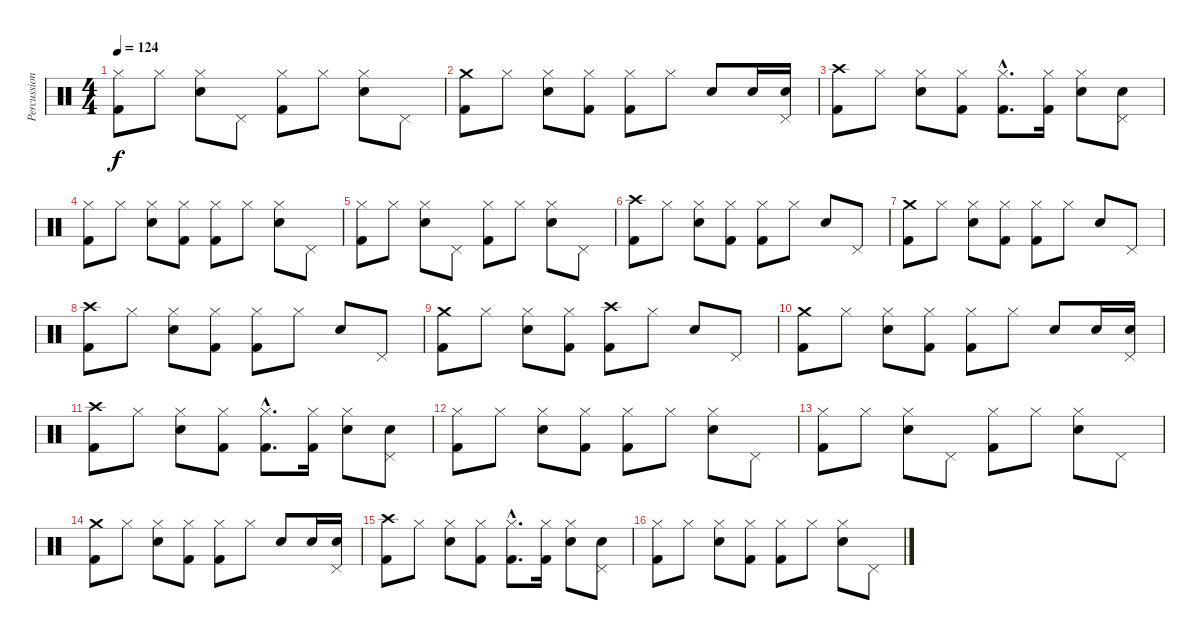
\track ("Percussions" "Percussion") {instrument percussion}
\staff {score}
\articulation defaults
\ts (4 4)
\tempo 124
\clef neutral
\ks c
("Hi-Hat (closed)" "Kick (hit) 2").8{dy f} "Hi-Hat (closed)".8 ("Hi-Hat (closed)" "Electric Snare (hit)").8 "Pedal Hi-Hat (hit)".8 ("Hi-Hat (closed)" "Kick (hit) 2").8 "Hi-Hat (closed)".8 ("Hi-Hat (closed)" "Electric Snare (hit)").8 "Pedal Hi-Hat (hit)".8 |
("Crash medium (hit)" "Kick (hit) 2").8 "Hi-Hat (closed)".8 ("Hi-Hat (closed)" "Electric Snare (hit)").8 ("Hi-Hat (closed)" "Kick (hit) 2").8 ("Hi-Hat (closed)" "Kick (hit) 2").8 "Hi-Hat (closed)".8 "Electric Snare (hit)".8 "Electric Snare (hit)".16 ("Pedal Hi-Hat (hit)" "Electric Snare (hit)").16 |
("Crash high (hit)" "Kick (hit) 2").8 "Hi-Hat (closed)".8 ("Hi-Hat (closed)" "Electric Snare (hit)").8 ("Hi-Hat (closed)" "Kick (hit) 2").8 ("Hi-Hat (closed)"{hac} "Kick (hit) 2"{hac}).8{d} ("Hi-Hat (closed)" "Kick (hit) 2").16 ("Hi-Hat (closed)" "Electric Snare (hit)").8 ("Pedal Hi-Hat (hit)" "Electric Snare (hit)").8 |
("Hi-Hat (closed)" "Kick (hit) 2").8 "Hi-Hat (closed)".8 ("Hi-Hat (closed)" "Electric Snare (hit)").8 ("Hi-Hat (closed)" "Kick (hit) 2").8 ("Hi-Hat (closed)" "Kick (hit) 2").8 "Hi-Hat (closed)".8 ("Hi-Hat (closed)" "Electric Snare (hit)").8 "Pedal Hi-Hat (hit)".8 |
("Hi-Hat (closed)" "Kick (hit) 2").8 "Hi-Hat (closed)".8 ("Hi-Hat (closed)" "Electric Snare (hit)").8 "Pedal Hi-Hat (hit)".8 ("Hi-Hat (closed)" "Kick (hit) 2").8 "Hi-Hat (closed)".8 ("Hi-Hat (closed)" "Electric Snare (hit)").8 "Pedal Hi-Hat (hit)".8 |
("Crash high (hit)" "Kick (hit) 2").8 "Hi-Hat (closed)".8 ("Hi-Hat (closed)" "Electric Snare (hit)").8 ("Hi-Hat (closed)" "Kick (hit) 2").8 ("Hi-Hat (closed)" "Kick (hit) 2").8 "Hi-Hat (closed)".8 "Electric Snare (hit)".8 "Pedal Hi-Hat (hit)".8 |
("Crash medium (hit)" "Kick (hit) 2").8 "Hi-Hat (closed)".8 ("Hi-Hat (closed)" "Electric Snare (hit)").8 ("Hi-Hat (closed)" "Kick (hit) 2").8 ("Hi-Hat (closed)" "Kick (hit) 2").8 "Hi-Hat (closed)".8 "Electric Snare (hit)".8 "Pedal Hi-Hat (hit)".8 |
("Crash high (hit)" "Kick (hit) 2").8 "Hi-Hat (closed)".8 ("Hi-Hat (closed)" "Electric Snare (hit)").8 ("Hi-Hat (closed)" "Kick (hit) 2").8 ("Hi-Hat (closed)" "Kick (hit) 2").8 "Hi-Hat (closed)".8 "Electric Snare (hit)".8 "Pedal Hi-Hat (hit)".8 |
("Crash medium (hit)" "Kick (hit) 2").8 "Hi-Hat (closed)".8 ("Hi-Hat (closed)" "Electric Snare (hit)").8 ("Hi-Hat (closed)" "Kick (hit) 2").8 ("Crash high (hit)" "Kick (hit) 2").8 "Hi-Hat (closed)".8 "Electric Snare (hit)".8 "Pedal Hi-Hat (hit)".8 |
("Crash medium (hit)" "Kick (hit) 2").8 "Hi-Hat (closed)".8 ("Hi-Hat (closed)" "Electric Snare (hit)").8 ("Hi-Hat (closed)" "Kick (hit) 2").8 ("Hi-Hat (closed)" "Kick (hit) 2").8 "Hi-Hat (closed)".8 "Electric Snare (hit)".8 "Electric Snare (hit)".16 ("Pedal Hi-Hat (hit)" "Electric Snare (hit)").16 |
("Crash high (hit)" "Kick (hit) 2").8 "Hi-Hat (closed)".8 ("Hi-Hat (closed)" "Electric Snare (hit)").8 ("Hi-Hat (closed)" "Kick (hit) 2").8 ("Hi-Hat (closed)"{hac} "Kick (hit) 2"{hac}).8{d} ("Hi-Hat (closed)" "Kick (hit) 2").16 ("Hi-Hat (closed)" "Electric Snare (hit)").8 ("Pedal Hi-Hat (hit)" "Electric Snare (hit)").8 |
("Hi-Hat (closed)" "Kick (hit) 2").8 "Hi-Hat (closed)".8 ("Hi-Hat (closed)" "Electric Snare (hit)").8 ("Hi-Hat (closed)" "Kick (hit) 2").8 ("Hi-Hat (closed)" "Kick (hit) 2").8 "Hi-Hat (closed)".8 ("Hi-Hat (closed)" "Electric Snare (hit)").8 "Pedal Hi-Hat (hit)".8 |
("Hi-Hat (closed)" "Kick (hit) 2").8 "Hi-Hat (closed)".8 ("Hi-Hat (closed)" "Electric Snare (hit)").8 "Pedal Hi-Hat (hit)".8 ("Hi-Hat (closed)" "Kick (hit) 2").8 "Hi-Hat (closed)".8 ("Hi-Hat (closed)" "Electric Snare (hit)").8 "Pedal Hi-Hat (hit)".8 |
("Crash medium (hit)" "Kick (hit) 2").8 "Hi-Hat (closed)".8 ("Hi-Hat (closed)" "Electric Snare (hit)").8 ("Hi-Hat (closed)" "Kick (hit) 2").8 ("Hi-Hat (closed)" "Kick (hit) 2").8 "Hi-Hat (closed)".8 "Electric Snare (hit)".8 "Electric Snare (hit)".16 ("Pedal Hi-Hat (hit)" "Electric Snare (hit)").16 |
("Crash high (hit)" "Kick (hit) 2").8 "Hi-Hat (closed)".8 ("Hi-Hat (closed)" "Electric Snare (hit)").8 ("Hi-Hat (closed)" "Kick (hit) 2").8 ("Hi-Hat (closed)"{hac} "Kick (hit) 2"{hac}).8{d} ("Hi-Hat (closed)" "Kick (hit) 2").16 ("Hi-Hat (closed)" "Electric Snare (hit)").8 ("Pedal Hi-Hat (hit)" "Electric Snare (hit)").8 |
("Hi-Hat (closed)" "Kick (hit) 2").8 "Hi-Hat (closed)".8 ("Hi-Hat (closed)" "Electric Snare (hit)").8 ("Hi-Hat (closed)" "Kick (hit) 2").8 ("Hi-Hat (closed)" "Kick (hit) 2").8 "Hi-Hat (closed)".8 ("Hi-Hat (closed)" "Electric Snare (hit)").8 "Pedal Hi-Hat (hit)".8
